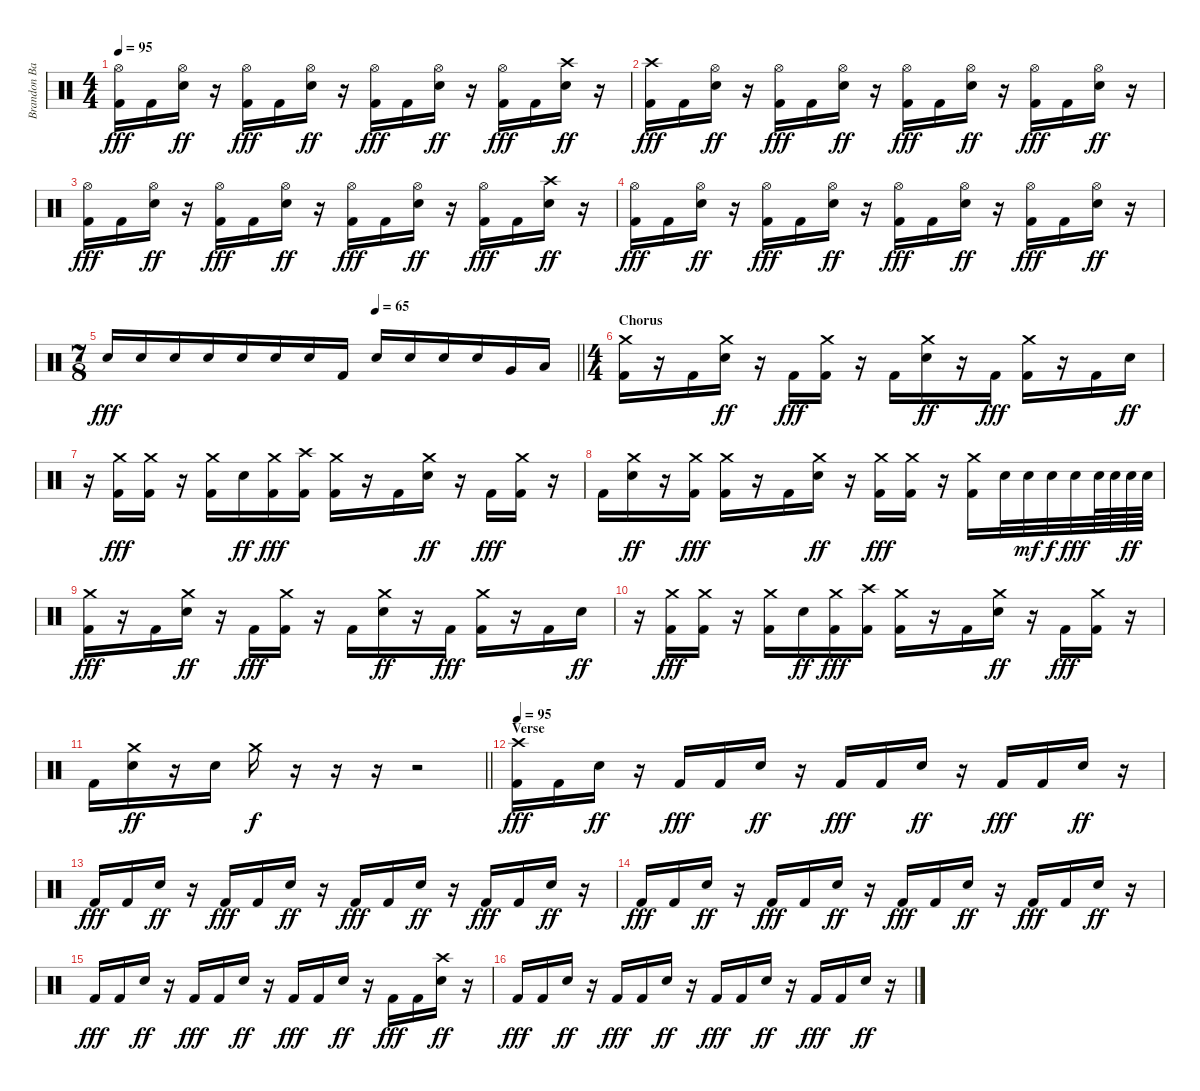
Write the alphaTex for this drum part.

\track ("Brandon Barnes" "Brandon Ba") {instrument percussion}
\staff {score}
\articulation defaults
\ts (4 4)
\tempo 95
\clef neutral
\ks c
("Hi-Hat (open)" "Kick (hit) 2").16{dy fff} "Kick (hit) 2".16 ("Hi-Hat (open)" "Electric Snare (hit)").16{dy ff} r.16 ("Hi-Hat (open)" "Kick (hit) 2").16{dy fff} "Kick (hit) 2".16 ("Hi-Hat (open)" "Electric Snare (hit)").16{dy ff} r.16 ("Hi-Hat (open)" "Kick (hit) 2").16{dy fff} "Kick (hit) 2".16 ("Hi-Hat (open)" "Electric Snare (hit)").16{dy ff} r.16 ("Hi-Hat (open)" "Kick (hit) 2").16{dy fff} "Kick (hit) 2".16 ("Crash high (hit)" "Electric Snare (hit)").16{dy ff} r.16 |
("Crash high (hit)" "Kick (hit) 2").16{dy fff} "Kick (hit) 2".16 ("Hi-Hat (open)" "Electric Snare (hit)").16{dy ff} r.16 ("Hi-Hat (open)" "Kick (hit) 2").16{dy fff} "Kick (hit) 2".16 ("Hi-Hat (open)" "Electric Snare (hit)").16{dy ff} r.16 ("Hi-Hat (open)" "Kick (hit) 2").16{dy fff} "Kick (hit) 2".16 ("Hi-Hat (open)" "Electric Snare (hit)").16{dy ff} r.16 ("Hi-Hat (open)" "Kick (hit) 2").16{dy fff} "Kick (hit) 2".16 ("Hi-Hat (open)" "Electric Snare (hit)").16{dy ff} r.16 |
("Hi-Hat (open)" "Kick (hit) 2").16{dy fff} "Kick (hit) 2".16 ("Hi-Hat (open)" "Electric Snare (hit)").16{dy ff} r.16 ("Hi-Hat (open)" "Kick (hit) 2").16{dy fff} "Kick (hit) 2".16 ("Hi-Hat (open)" "Electric Snare (hit)").16{dy ff} r.16 ("Hi-Hat (open)" "Kick (hit) 2").16{dy fff} "Kick (hit) 2".16 ("Hi-Hat (open)" "Electric Snare (hit)").16{dy ff} r.16 ("Hi-Hat (open)" "Kick (hit) 2").16{dy fff} "Kick (hit) 2".16 ("Crash high (hit)" "Electric Snare (hit)").16{dy ff} r.16 |
("Hi-Hat (open)" "Kick (hit) 2").16{dy fff} "Kick (hit) 2".16 ("Hi-Hat (open)" "Electric Snare (hit)").16{dy ff} r.16 ("Hi-Hat (open)" "Kick (hit) 2").16{dy fff} "Kick (hit) 2".16 ("Hi-Hat (open)" "Electric Snare (hit)").16{dy ff} r.16 ("Hi-Hat (open)" "Kick (hit) 2").16{dy fff} "Kick (hit) 2".16 ("Hi-Hat (open)" "Electric Snare (hit)").16{dy ff} r.16 ("Hi-Hat (open)" "Kick (hit) 2").16{dy fff} "Kick (hit) 2".16 ("Hi-Hat (open)" "Electric Snare (hit)").16{dy ff} r.16 |
\ts (7 8)
\tempo (65 0.5714285714285714)
\barLineRight lightlight "Electric Snare (hit)".16{dy fff} "Electric Snare (hit)".16 "Electric Snare (hit)".16 "Electric Snare (hit)".16 "Electric Snare (hit)".16 "Electric Snare (hit)".16 "Electric Snare (hit)".16 "Kick (hit) 2".16 "Electric Snare (hit)".16 "Electric Snare (hit)".16 "Electric Snare (hit)".16 "Electric Snare (hit)".16 "Very Low Tom (hit)".16 "Low Floor Tom (hit)".16
|
\ts (4 4)
\section ("" "Chorus")
("Crash medium (hit)" "Kick (hit) 2").16 r.16 "Kick (hit) 2".16 ("Crash medium (hit)" "Electric Snare (hit)").16{dy ff} r.16 "Kick (hit) 2".16{dy fff} ("Crash medium (hit)" "Kick (hit) 2").16 r.16 "Kick (hit) 2".16 ("Crash medium (hit)" "Electric Snare (hit)").16{dy ff} r.16 "Kick (hit) 2".16{dy fff} ("Crash medium (hit)" "Kick (hit) 2").16 r.16 "Kick (hit) 2".16 "Electric Snare (hit)".16{dy ff} |
r.16 ("Crash medium (hit)" "Kick (hit) 2").16{dy fff} ("Crash medium (hit)" "Kick (hit) 2").16 r.16 ("Crash medium (hit)" "Kick (hit) 2").16 "Electric Snare (hit)".16{dy ff} ("Crash medium (hit)" "Kick (hit) 2").16{dy fff} ("Crash high (hit)" "Kick (hit) 2").16 ("Crash medium (hit)" "Kick (hit) 2").16 r.16 "Kick (hit) 2".16 ("Crash medium (hit)" "Electric Snare (hit)").16{dy ff} r.16 "Kick (hit) 2".16{dy fff} ("Crash medium (hit)" "Kick (hit) 2").16 r.16 |
"Kick (hit) 2".16 ("Crash medium (hit)" "Electric Snare (hit)").16{dy ff} r.16 ("Crash medium (hit)" "Kick (hit) 2").16{dy fff} ("Crash medium (hit)" "Kick (hit) 2").16 r.16 "Kick (hit) 2".16 ("Crash medium (hit)" "Electric Snare (hit)").16{dy ff} r.16 ("Crash medium (hit)" "Kick (hit) 2").16{dy fff} ("Crash medium (hit)" "Kick (hit) 2").16 r.16 ("Crash medium (hit)" "Kick (hit) 2").16 "Electric Snare (hit)".32 "Electric Snare (hit)".32{dy mf} "Electric Snare (hit)".32{dy f} "Electric Snare (hit)".32{dy fff} "Electric Snare (hit)".64 "Electric Snare (hit)".64 "Electric Snare (hit)".64{dy ff} "Electric Snare (hit)".64 |
("Crash medium (hit)" "Kick (hit) 2").16{dy fff} r.16 "Kick (hit) 2".16 ("Crash medium (hit)" "Electric Snare (hit)").16{dy ff} r.16 "Kick (hit) 2".16{dy fff} ("Crash medium (hit)" "Kick (hit) 2").16 r.16 "Kick (hit) 2".16 ("Crash medium (hit)" "Electric Snare (hit)").16{dy ff} r.16 "Kick (hit) 2".16{dy fff} ("Crash medium (hit)" "Kick (hit) 2").16 r.16 "Kick (hit) 2".16 "Electric Snare (hit)".16{dy ff} |
r.16 ("Crash medium (hit)" "Kick (hit) 2").16{dy fff} ("Crash medium (hit)" "Kick (hit) 2").16 r.16 ("Crash medium (hit)" "Kick (hit) 2").16 "Electric Snare (hit)".16{dy ff} ("Crash medium (hit)" "Kick (hit) 2").16{dy fff} ("Crash high (hit)" "Kick (hit) 2").16 ("Crash medium (hit)" "Kick (hit) 2").16 r.16 "Kick (hit) 2".16 ("Crash medium (hit)" "Electric Snare (hit)").16{dy ff} r.16 "Kick (hit) 2".16{dy fff} ("Crash medium (hit)" "Kick (hit) 2").16 r.16 |
\barLineRight lightlight "Kick (hit) 2".16
("Crash medium (hit)" "Electric Snare (hit)").16{dy ff} r.16 "Electric Snare (hit)".16 "Crash medium (hit)".16{dy f} r.16 r.16 r.16 r.2 |
\section ("" "Verse")
\tempo 95
("Crash high (hit)" "Kick (hit) 2").16{dy fff} "Kick (hit) 2".16 "Electric Snare (hit)".16{dy ff} r.16 "Kick (hit) 2".16{dy fff} "Kick (hit) 2".16 "Electric Snare (hit)".16{dy ff} r.16 "Kick (hit) 2".16{dy fff} "Kick (hit) 2".16 "Electric Snare (hit)".16{dy ff} r.16 "Kick (hit) 2".16{dy fff} "Kick (hit) 2".16 "Electric Snare (hit)".16{dy ff} r.16 |
"Kick (hit) 2".16{dy fff} "Kick (hit) 2".16 "Electric Snare (hit)".16{dy ff} r.16 "Kick (hit) 2".16{dy fff} "Kick (hit) 2".16 "Electric Snare (hit)".16{dy ff} r.16 "Kick (hit) 2".16{dy fff} "Kick (hit) 2".16 "Electric Snare (hit)".16{dy ff} r.16 "Kick (hit) 2".16{dy fff} "Kick (hit) 2".16 "Electric Snare (hit)".16{dy ff} r.16 |
"Kick (hit) 2".16{dy fff} "Kick (hit) 2".16 "Electric Snare (hit)".16{dy ff} r.16 "Kick (hit) 2".16{dy fff} "Kick (hit) 2".16 "Electric Snare (hit)".16{dy ff} r.16 "Kick (hit) 2".16{dy fff} "Kick (hit) 2".16 "Electric Snare (hit)".16{dy ff} r.16 "Kick (hit) 2".16{dy fff} "Kick (hit) 2".16 "Electric Snare (hit)".16{dy ff} r.16 |
"Kick (hit) 2".16{dy fff} "Kick (hit) 2".16 "Electric Snare (hit)".16{dy ff} r.16 "Kick (hit) 2".16{dy fff} "Kick (hit) 2".16 "Electric Snare (hit)".16{dy ff} r.16 "Kick (hit) 2".16{dy fff} "Kick (hit) 2".16 "Electric Snare (hit)".16{dy ff} r.16 "Kick (hit) 2".16{dy fff} "Kick (hit) 2".16 ("Crash high (hit)" "Electric Snare (hit)").16{dy ff} r.16 |
"Kick (hit) 2".16{dy fff} "Kick (hit) 2".16 "Electric Snare (hit)".16{dy ff} r.16 "Kick (hit) 2".16{dy fff} "Kick (hit) 2".16 "Electric Snare (hit)".16{dy ff} r.16 "Kick (hit) 2".16{dy fff} "Kick (hit) 2".16 "Electric Snare (hit)".16{dy ff} r.16 "Kick (hit) 2".16{dy fff} "Kick (hit) 2".16 "Electric Snare (hit)".16{dy ff} r.16
